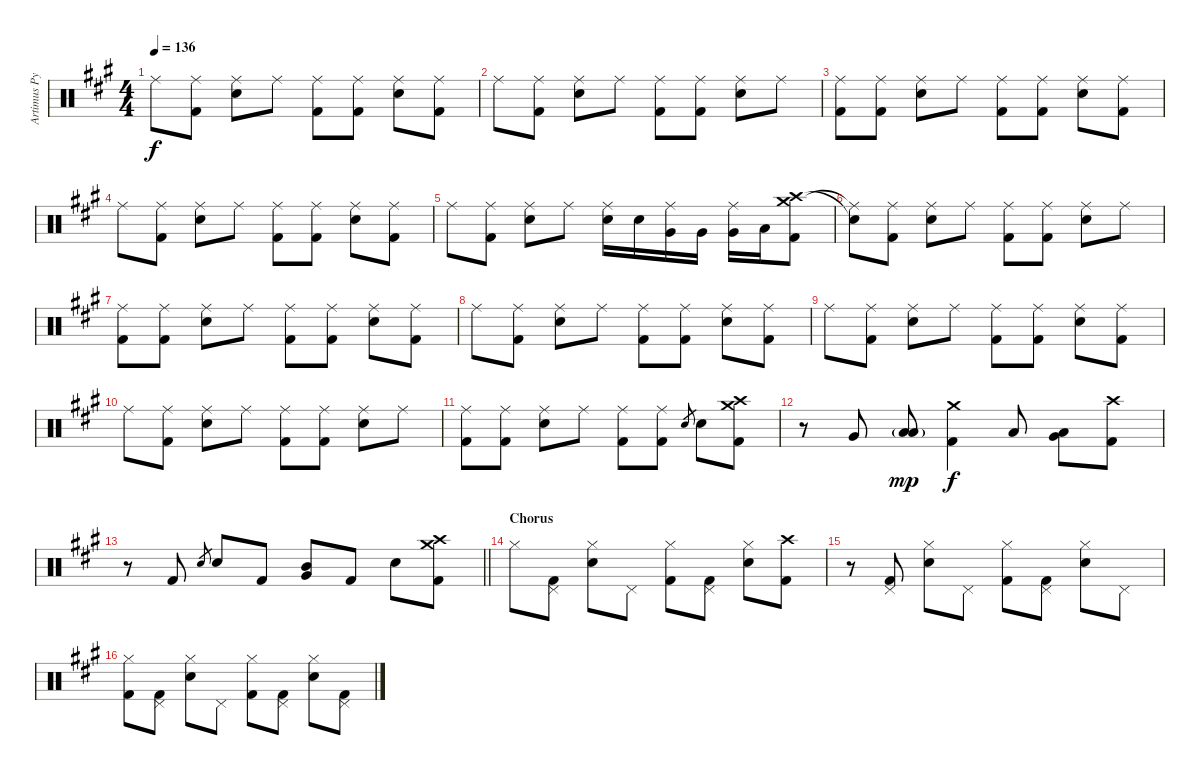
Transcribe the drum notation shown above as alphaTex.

\track ("Artimus Pyle - Drums" "Artimus Py") {instrument percussion}
\staff {score}
\articulation defaults
\ts (4 4)
\tempo 136
\clef neutral
\ks a "Ride (middle)".8{dy f}
("Ride (middle)" "Kick (hit) 2").8 ("Ride (middle)" "Snare (hit) 2").8 "Ride (middle)".8 ("Ride (middle)" "Kick (hit) 2").8 ("Ride (middle)" "Kick (hit) 2").8 ("Ride (middle)" "Snare (hit) 2").8 ("Ride (middle)" "Kick (hit) 2").8 |
"Ride (middle)".8 ("Ride (middle)" "Kick (hit) 2").8 ("Ride (middle)" "Snare (hit) 2").8 "Ride (middle)".8 ("Ride (middle)" "Kick (hit) 2").8 ("Ride (middle)" "Kick (hit) 2").8 ("Ride (middle)" "Snare (hit) 2").8 "Ride (middle)".8 |
("Ride (middle)" "Kick (hit) 2").8 ("Ride (middle)" "Kick (hit) 2").8 ("Ride (middle)" "Snare (hit) 2").8 "Ride (middle)".8 ("Ride (middle)" "Kick (hit) 2").8 ("Ride (middle)" "Kick (hit) 2").8 ("Ride (middle)" "Snare (hit) 2").8 ("Ride (middle)" "Kick (hit) 2").8 |
"Ride (middle)".8 ("Ride (middle)" "Kick (hit) 2").8 ("Ride (middle)" "Snare (hit) 2").8 "Ride (middle)".8 ("Ride (middle)" "Kick (hit) 2").8 ("Ride (middle)" "Kick (hit) 2").8 ("Ride (middle)" "Snare (hit) 2").8 ("Ride (middle)" "Kick (hit) 2").8 |
"Ride (middle)".8 ("Ride (middle)" "Kick (hit) 2").8 ("Ride (middle)" "Snare (hit) 2").8 "Ride (middle)".8 ("Ride (middle)" "Snare (hit) 2").16 "Snare (hit) 2".16 ("Ride (middle)" "Very Low Tom (hit)").16 "Very Low Tom (hit)".16 ("Ride (middle)" "Very Low Tom (hit)").16 "Low Floor Tom (hit)".16 ("Crash medium (hit)" "Crash high (hit)" "Kick (hit) 2").8 |
("Ride (middle)"{t} "Snare (hit)"{t}).8 ("Ride (middle)" "Kick (hit) 2").8 ("Ride (middle)" "Snare (hit) 2").8 "Ride (middle)".8 ("Ride (middle)" "Kick (hit) 2").8 ("Ride (middle)" "Kick (hit) 2").8 ("Ride (middle)" "Snare (hit) 2").8 "Ride (middle)".8 |
("Ride (middle)" "Kick (hit) 2").8 ("Ride (middle)" "Kick (hit) 2").8 ("Ride (middle)" "Snare (hit) 2").8 "Ride (middle)".8 ("Ride (middle)" "Kick (hit) 2").8 ("Ride (middle)" "Kick (hit) 2").8 ("Ride (middle)" "Snare (hit) 2").8 ("Ride (middle)" "Kick (hit) 2").8 |
"Ride (middle)".8 ("Ride (middle)" "Kick (hit) 2").8 ("Ride (middle)" "Snare (hit) 2").8 "Ride (middle)".8 ("Ride (middle)" "Kick (hit) 2").8 ("Ride (middle)" "Kick (hit) 2").8 ("Ride (middle)" "Snare (hit) 2").8 ("Ride (middle)" "Kick (hit) 2").8 |
"Ride (middle)".8 ("Ride (middle)" "Kick (hit) 2").8 ("Ride (middle)" "Snare (hit) 2").8 "Ride (middle)".8 ("Ride (middle)" "Kick (hit) 2").8 ("Ride (middle)" "Kick (hit) 2").8 ("Ride (middle)" "Snare (hit) 2").8 ("Ride (middle)" "Kick (hit) 2").8 |
"Ride (middle)".8 ("Ride (middle)" "Kick (hit) 2").8 ("Ride (middle)" "Snare (hit) 2").8 "Ride (middle)".8 ("Ride (middle)" "Kick (hit) 2").8 ("Ride (middle)" "Kick (hit) 2").8 ("Ride (middle)" "Snare (hit) 2").8 "Ride (middle)".8 |
("Ride (middle)" "Kick (hit) 2").8 ("Ride (middle)" "Kick (hit) 2").8 ("Ride (middle)" "Snare (hit) 2").8 "Ride (middle)".8 ("Ride (middle)" "Kick (hit) 2").8 ("Ride (middle)" "Kick (hit) 2").8 "Snare (hit) 2".8{gr} "Snare (hit) 2".8 ("Crash medium (hit)" "Crash high (hit)" "Kick (hit) 2").8 |
r.8 "Very Low Tom (hit)".8 ("Low Floor Tom (hit)" "Low Tom (hit)"{g}).8{dy mp} ("Crash medium (hit)" "Kick (hit) 2").4{dy f} "Low Tom (hit)".8 ("Very Low Tom (hit)" "Low Floor Tom (hit)").8 ("Crash high (hit)" "Kick (hit) 2").8 |
\barLineRight lightlight
r.8 "Kick (hit) 2".8 "Snare (hit) 2".8{gr} "Snare (hit) 2".8 "Kick (hit) 2".8 ("Mid Tom (hit)" "Very Low Tom (hit)").8 "Kick (hit) 2".8 "Snare (hit) 2".8 ("Crash medium (hit)" "Crash high (hit)" "Kick (hit) 2").8 |
\section ("" "Chorus")
"Hi-Hat (closed)".8 ("Pedal Hi-Hat (hit)" "Kick (hit) 2").8 ("Snare (hit) 2" "Hi-Hat (closed)").8 "Pedal Hi-Hat (hit)".8 ("Hi-Hat (closed)" "Kick (hit) 2").8 ("Pedal Hi-Hat (hit)" "Kick (hit) 2").8 ("Snare (hit) 2" "Hi-Hat (closed)").8 ("Crash high (hit)" "Kick (hit) 2").8 |
r.8 ("Pedal Hi-Hat (hit)" "Kick (hit) 2").8 ("Snare (hit) 2" "Hi-Hat (closed)").8 "Pedal Hi-Hat (hit)".8 ("Hi-Hat (closed)" "Kick (hit) 2").8 ("Pedal Hi-Hat (hit)" "Kick (hit) 2").8 ("Snare (hit) 2" "Hi-Hat (closed)").8 "Pedal Hi-Hat (hit)".8 |
("Hi-Hat (closed)" "Kick (hit) 2").8 ("Pedal Hi-Hat (hit)" "Kick (hit) 2").8 ("Snare (hit) 2" "Hi-Hat (closed)").8 "Pedal Hi-Hat (hit)".8 ("Hi-Hat (closed)" "Kick (hit) 2").8 ("Pedal Hi-Hat (hit)" "Kick (hit) 2").8 ("Snare (hit) 2" "Hi-Hat (closed)").8 ("Pedal Hi-Hat (hit)" "Kick (hit) 2").8
